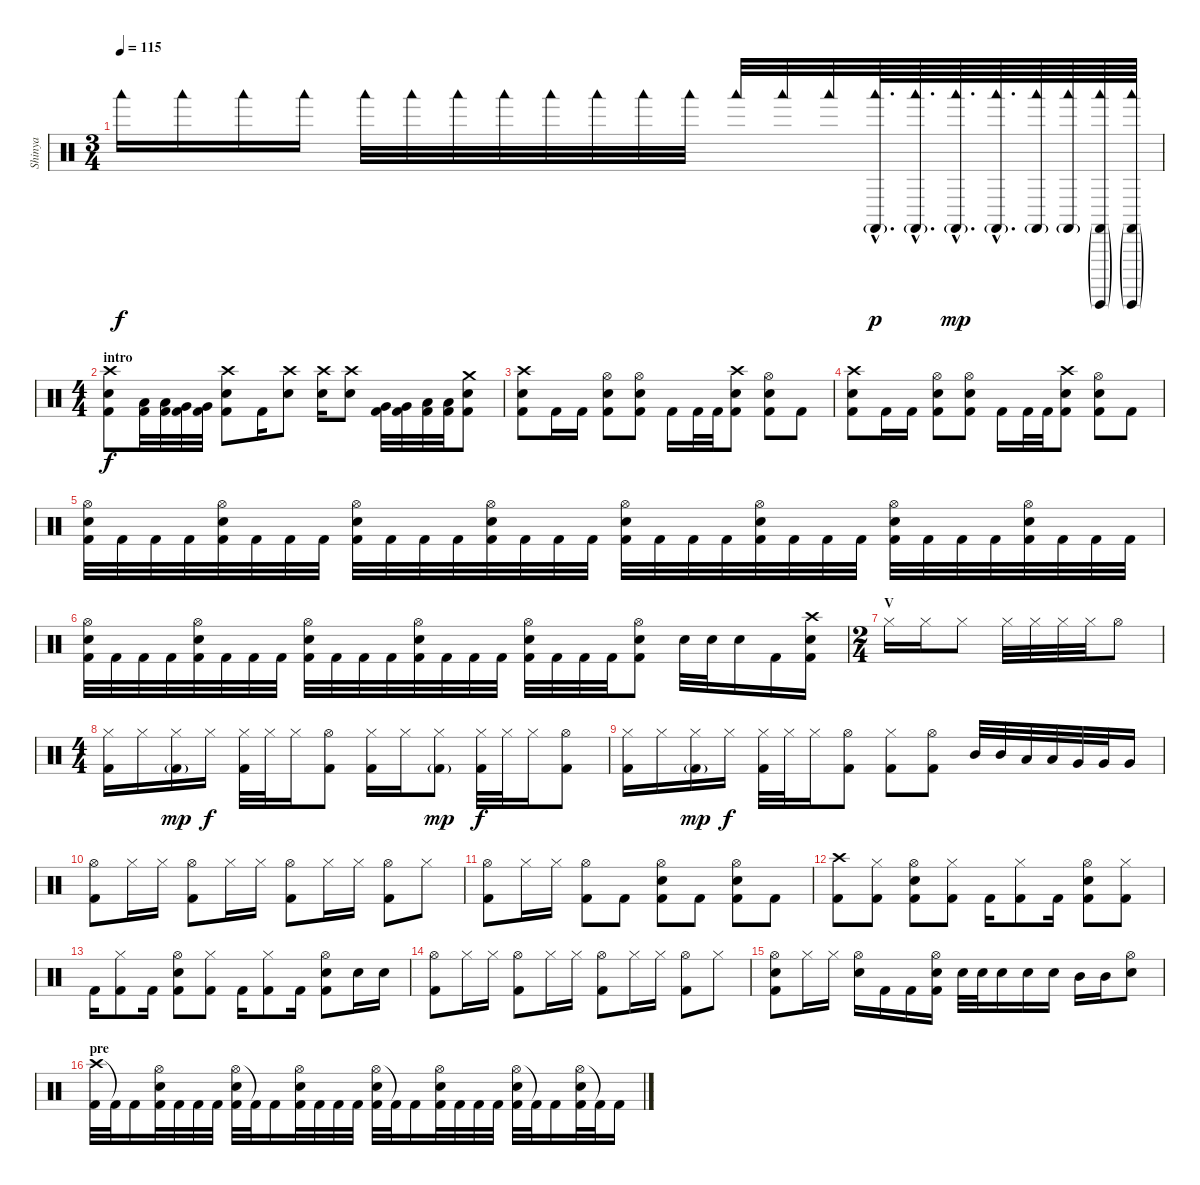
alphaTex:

\track ("Shinya" "Shinya") {instrument percussion}
\staff {score}
\articulation defaults
\ts (3 4)
\tempo 115
\clef neutral
\ks c "Woodblock low (hit)".16{dy f} "Woodblock low (hit)".16 "Woodblock low (hit)".16 "Woodblock low (hit)".16 "Woodblock low (hit)".32 "Woodblock low (hit)".32 "Woodblock low (hit)".32 "Woodblock low (hit)".32 "Woodblock low (hit)".32 "Woodblock low (hit)".32 "Woodblock low (hit)".32 "Woodblock low (hit)".32 "Woodblock low (hit)".32 "Woodblock low (hit)".32 "Woodblock low (hit)".32
("Woodblock low (hit)"{hac} "Castanets (hit)"{g hac}).64{d dy p} ("Woodblock low (hit)"{hac} "Castanets (hit)"{g hac}).64{d} ("Woodblock low (hit)"{hac} "Castanets (hit)"{g hac}).64{d dy mp} ("Woodblock low (hit)"{hac} "Castanets (hit)"{g hac}).64{d} ("Woodblock low (hit)" "Castanets (hit)"{g}).64 ("Woodblock low (hit)" "Castanets (hit)"{g}).64 ("Woodblock low (hit)" "Castanets (hit)"{g} "Guiro (hit)"{g}).64 ("Woodblock low (hit)" "Castanets (hit)"{g} "Guiro (hit)"{g}).64 |
\ts (4 4)
\section ("" "intro")
("Crash high (hit)" "Snare (hit) 2" "Kick (hit) 2").8{dy f} ("Low Tom (hit)" "Kick (hit) 2").32 ("Low Tom (hit)" "Kick (hit) 2").32 ("Very Low Tom (hit)" "Kick (hit) 2").32 ("Very Low Tom (hit)" "Kick (hit) 2").32 ("Crash high (hit)" "Electric Snare (hit)" "Kick (hit) 2").8 "Kick (hit) 2".16 ("Crash high (hit)" "Electric Snare (hit)").8 ("Crash high (hit)" "Electric Snare (hit)").16 ("Crash high (hit)" "Electric Snare (hit)").8 ("Very Low Tom (hit)" "Kick (hit) 2").32 ("Very Low Tom (hit)" "Kick (hit) 2").32 ("Low Floor Tom (hit)" "Kick (hit) 2").32 ("Low Floor Tom (hit)" "Kick (hit) 2").32 ("Crash medium (hit)" "Electric Snare (hit)" "Kick (hit) 2").8 |
("Crash high (hit)" "Electric Snare (hit)" "Kick (hit) 2").8 "Kick (hit) 2".16 "Kick (hit) 2".16 ("Hi-Hat (open)" "Electric Snare (hit)" "Kick (hit) 2").8 ("Hi-Hat (open)" "Electric Snare (hit)" "Kick (hit) 2").8 "Kick (hit) 2".16 "Kick (hit) 2".32 "Kick (hit) 2".32 ("Crash high (hit)" "Electric Snare (hit)" "Kick (hit) 2").8 ("Hi-Hat (open)" "Electric Snare (hit)" "Kick (hit) 2").8 "Kick (hit) 2".8 |
("Crash high (hit)" "Electric Snare (hit)" "Kick (hit) 2").8 "Kick (hit) 2".16 "Kick (hit) 2".16 ("Hi-Hat (open)" "Electric Snare (hit)" "Kick (hit) 2").8 ("Hi-Hat (open)" "Electric Snare (hit)" "Kick (hit) 2").8 "Kick (hit) 2".16 "Kick (hit) 2".32 "Kick (hit) 2".32 ("Crash high (hit)" "Electric Snare (hit)" "Kick (hit) 2").8 ("Hi-Hat (open)" "Electric Snare (hit)" "Kick (hit) 2").8 "Kick (hit) 2".8 |
("Hi-Hat (open)" "Electric Snare (hit)" "Kick (hit) 2").32 "Kick (hit) 2".32 "Kick (hit) 2".32 "Kick (hit) 2".32 ("Hi-Hat (open)" "Electric Snare (hit)" "Kick (hit) 2").32 "Kick (hit) 2".32 "Kick (hit) 2".32 "Kick (hit) 2".32 ("Hi-Hat (open)" "Electric Snare (hit)" "Kick (hit) 2").32 "Kick (hit) 2".32 "Kick (hit) 2".32 "Kick (hit) 2".32 ("Hi-Hat (open)" "Electric Snare (hit)" "Kick (hit) 2").32 "Kick (hit) 2".32 "Kick (hit) 2".32 "Kick (hit) 2".32 ("Hi-Hat (open)" "Electric Snare (hit)" "Kick (hit) 2").32 "Kick (hit) 2".32 "Kick (hit) 2".32 "Kick (hit) 2".32 ("Hi-Hat (open)" "Electric Snare (hit)" "Kick (hit) 2").32 "Kick (hit) 2".32 "Kick (hit) 2".32 "Kick (hit) 2".32 ("Hi-Hat (open)" "Electric Snare (hit)" "Kick (hit) 2").32 "Kick (hit) 2".32 "Kick (hit) 2".32 "Kick (hit) 2".32 ("Hi-Hat (open)" "Electric Snare (hit)" "Kick (hit) 2").32 "Kick (hit) 2".32 "Kick (hit) 2".32 "Kick (hit) 2".32 |
("Hi-Hat (open)" "Electric Snare (hit)" "Kick (hit) 2").32 "Kick (hit) 2".32 "Kick (hit) 2".32 "Kick (hit) 2".32 ("Hi-Hat (open)" "Electric Snare (hit)" "Kick (hit) 2").32 "Kick (hit) 2".32 "Kick (hit) 2".32 "Kick (hit) 2".32 ("Hi-Hat (open)" "Electric Snare (hit)" "Kick (hit) 2").32 "Kick (hit) 2".32 "Kick (hit) 2".32 "Kick (hit) 2".32 ("Hi-Hat (open)" "Electric Snare (hit)" "Kick (hit) 2").32 "Kick (hit) 2".32 "Kick (hit) 2".32 "Kick (hit) 2".32 ("Hi-Hat (open)" "Electric Snare (hit)" "Kick (hit) 2").32 "Kick (hit) 2".32 "Kick (hit) 2".32 "Kick (hit) 2".32 ("Hi-Hat (open)" "Electric Snare (hit)" "Kick (hit) 2").8 "Electric Snare (hit)".32 "Electric Snare (hit)".32 "Electric Snare (hit)".16 "Kick (hit) 2".16 ("Crash high (hit)" "Electric Snare (hit)" "Kick (hit) 2").16 |
\ts (2 4)
\section ("" "V")
"Hi-Hat (closed)".16 "Hi-Hat (closed)".16 "Hi-Hat (closed)".8 "Hi-Hat (closed)".32 "Hi-Hat (closed)".32 "Hi-Hat (closed)".32 "Hi-Hat (closed)".32 "Hi-Hat (open)".8 |
\ts (4 4)
("Hi-Hat (closed)" "Kick (hit) 2").16 "Hi-Hat (closed)".16 ("Hi-Hat (closed)" "Kick (hit) 2"{g}).16{dy mp} "Hi-Hat (closed)".16{dy f} ("Hi-Hat (closed)" "Kick (hit) 2").32 "Hi-Hat (closed)".32 "Hi-Hat (closed)".16 ("Hi-Hat (open)" "Kick (hit) 2").8 ("Hi-Hat (closed)" "Kick (hit) 2").16 "Hi-Hat (closed)".16 ("Hi-Hat (closed)" "Kick (hit) 2"{g}).8{dy mp} ("Hi-Hat (closed)" "Kick (hit) 2").32{dy f} "Hi-Hat (closed)".32 "Hi-Hat (closed)".16 ("Hi-Hat (open)" "Kick (hit) 2").8 |
("Hi-Hat (closed)" "Kick (hit) 2").16 "Hi-Hat (closed)".16 ("Hi-Hat (closed)" "Kick (hit) 2"{g}).16{dy mp} "Hi-Hat (closed)".16{dy f} ("Hi-Hat (closed)" "Kick (hit) 2").32 "Hi-Hat (closed)".32 "Hi-Hat (closed)".16 ("Hi-Hat (open)" "Kick (hit) 2").8 ("Hi-Hat (closed)" "Kick (hit) 2").8 ("Hi-Hat (open)" "Kick (hit) 2").8 "Mid Tom (hit)".32 "Mid Tom (hit)".32 "Low Tom (hit)".32 "Low Tom (hit)".32 "Very Low Tom (hit)".32 "Very Low Tom (hit)".32 "Very Low Tom (hit)".16 |
("Hi-Hat (open)" "Kick (hit) 2").8 "Hi-Hat (closed)".16 "Hi-Hat (closed)".16 ("Hi-Hat (open)" "Kick (hit) 2").8 "Hi-Hat (closed)".16 "Hi-Hat (closed)".16 ("Hi-Hat (open)" "Kick (hit) 2").8 "Hi-Hat (closed)".16 "Hi-Hat (closed)".16 ("Hi-Hat (open)" "Kick (hit) 2").8 "Hi-Hat (closed)".8 |
("Hi-Hat (open)" "Kick (hit) 2").8 "Hi-Hat (closed)".16 "Hi-Hat (closed)".16 ("Hi-Hat (open)" "Kick (hit) 2").8 "Kick (hit) 2".8 ("Hi-Hat (open)" "Electric Snare (hit)" "Kick (hit) 2").8 "Kick (hit) 2".8 ("Hi-Hat (open)" "Electric Snare (hit)" "Kick (hit) 2").8 "Kick (hit) 2".8 |
("Crash high (hit)" "Kick (hit) 2").8 ("Hi-Hat (closed)" "Kick (hit) 2").8 ("Hi-Hat (open)" "Electric Snare (hit)" "Kick (hit) 2").8 ("Hi-Hat (closed)" "Kick (hit) 2").8 "Kick (hit) 2".16 ("Hi-Hat (closed)" "Kick (hit) 2").8 "Kick (hit) 2".16 ("Hi-Hat (open)" "Electric Snare (hit)" "Kick (hit) 2").8 ("Hi-Hat (closed)" "Kick (hit) 2").8 |
"Kick (hit) 2".16 ("Hi-Hat (closed)" "Kick (hit) 2").8 "Kick (hit) 2".16 ("Hi-Hat (open)" "Electric Snare (hit)" "Kick (hit) 2").8 ("Hi-Hat (closed)" "Kick (hit) 2").8 "Kick (hit) 2".16 ("Hi-Hat (closed)" "Kick (hit) 2").8 "Kick (hit) 2".16 ("Hi-Hat (open)" "Electric Snare (hit)" "Kick (hit) 2").8 "Electric Snare (hit)".16 "Electric Snare (hit)".16 |
("Hi-Hat (open)" "Kick (hit) 2").8 "Hi-Hat (closed)".16 "Hi-Hat (closed)".16 ("Hi-Hat (open)" "Kick (hit) 2").8 "Hi-Hat (closed)".16 "Hi-Hat (closed)".16 ("Hi-Hat (open)" "Kick (hit) 2").8 "Hi-Hat (closed)".16 "Hi-Hat (closed)".16 ("Hi-Hat (open)" "Kick (hit) 2").8 "Hi-Hat (closed)".8 |
("Hi-Hat (open)" "Electric Snare (hit)" "Kick (hit) 2").8 "Hi-Hat (closed)".16 "Hi-Hat (closed)".16 ("Hi-Hat (open)" "Electric Snare (hit)").16 "Kick (hit) 2".16 "Kick (hit) 2".16 ("Hi-Hat (open)" "Electric Snare (hit)" "Kick (hit) 2").16 "Electric Snare (hit)".32 "Electric Snare (hit)".32 "Electric Snare (hit)".16 "Electric Snare (hit)".16 "Electric Snare (hit)".16 "Mid Tom (hit)".16 "Mid Tom (hit)".16 ("Electric Snare (hit)" "Hi-Hat (open)").8 |
\section ("" "pre")
("Crash high (hit)" "Kick (hit) 2").32 "Kick (hit) 2"{t}.32 "Kick (hit) 2".16 ("Hi-Hat (open)" "Electric Snare (hit)" "Kick (hit) 2").32 "Kick (hit) 2".32 "Kick (hit) 2".32 "Kick (hit) 2".32 ("Hi-Hat (open)" "Electric Snare (hit)" "Kick (hit) 2").32 "Kick (hit) 2"{t}.32 "Kick (hit) 2".16 ("Hi-Hat (open)" "Electric Snare (hit)" "Kick (hit) 2").32 "Kick (hit) 2".32 "Kick (hit) 2".32 "Kick (hit) 2".32 ("Hi-Hat (open)" "Electric Snare (hit)" "Kick (hit) 2").32 "Kick (hit) 2"{t}.32 "Kick (hit) 2".16 ("Hi-Hat (open)" "Electric Snare (hit)" "Kick (hit) 2").32 "Kick (hit) 2".32 "Kick (hit) 2".32 "Kick (hit) 2".32 ("Hi-Hat (open)" "Electric Snare (hit)" "Kick (hit) 2").32 "Kick (hit) 2"{t}.32 "Kick (hit) 2".16 ("Hi-Hat (open)" "Electric Snare (hit)" "Kick (hit) 2").32 "Kick (hit) 2"{t}.32 "Kick (hit) 2".16
